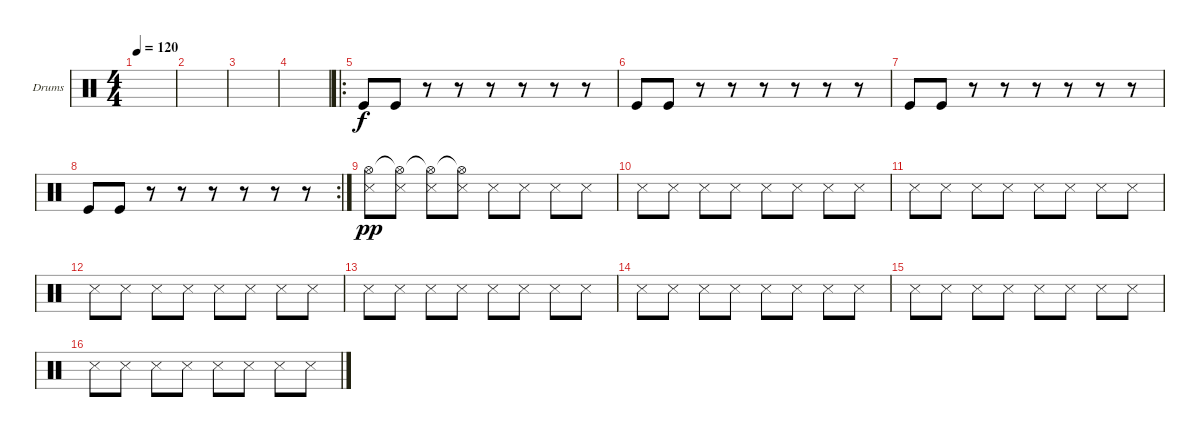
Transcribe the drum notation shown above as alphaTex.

\defaultSystemsLayout 4
\bracketExtendMode groupsimilarinstruments
\firstSystemTrackNameOrientation horizontal
\otherSystemsTrackNameOrientation horizontal
\track ("Drumkit" "Drums") {instrument percussion}
\staff {score}
\articulation defaults
\ts (4 4)
\tempo 120
\clef neutral
\scale
0.472222
\ks c
|
\scale
0.263889 |
\scale
0.263889 |
\scale
0.333333 |
\ro
\scale
0.333333 "Kick (hit)".8 "Kick (hit)".8 r.8 r.8 r.8 r.8 r.8 r.8 |
\scale
0.333333 "Kick (hit)".8 "Kick (hit)".8 r.8 r.8 r.8 r.8 r.8 r.8 |
\scale
0.333333 "Kick (hit)".8 "Kick (hit)".8 r.8 r.8 r.8 r.8 r.8 r.8 |
\rc 2
\scale
0.333333 "Kick (hit)".8 "Kick (hit)".8 r.8 r.8 r.8 r.8 r.8 r.8 |
\scale
0.333333 ("Snare (side stick) 3" "Hi-Hat (open)").8{dy pp} ("Snare (side stick) 3" "Hi-Hat (open)"{t}).8 ("Snare (side stick) 3" "Hi-Hat (open)"{t}).8 ("Snare (side stick) 3" "Hi-Hat (open)"{t}).8 "Snare (side stick) 3".8 "Snare (side stick) 3".8 "Snare (side stick) 3".8 "Snare (side stick) 3".8 |
\scale
0.333333 "Snare (side stick) 3".8 "Snare (side stick) 3".8 "Snare (side stick) 3".8 "Snare (side stick) 3".8 "Snare (side stick) 3".8 "Snare (side stick) 3".8 "Snare (side stick) 3".8 "Snare (side stick) 3".8 |
\scale
0.333333 "Snare (side stick) 3".8 "Snare (side stick) 3".8 "Snare (side stick) 3".8 "Snare (side stick) 3".8 "Snare (side stick) 3".8 "Snare (side stick) 3".8 "Snare (side stick) 3".8 "Snare (side stick) 3".8 |
\scale
0.333333 "Snare (side stick) 3".8 "Snare (side stick) 3".8 "Snare (side stick) 3".8 "Snare (side stick) 3".8 "Snare (side stick) 3".8 "Snare (side stick) 3".8 "Snare (side stick) 3".8 "Snare (side stick) 3".8 |
\scale
0.333333 "Snare (side stick) 3".8 "Snare (side stick) 3".8 "Snare (side stick) 3".8 "Snare (side stick) 3".8 "Snare (side stick) 3".8 "Snare (side stick) 3".8 "Snare (side stick) 3".8 "Snare (side stick) 3".8 |
\scale
0.333333 "Snare (side stick) 3".8 "Snare (side stick) 3".8 "Snare (side stick) 3".8 "Snare (side stick) 3".8 "Snare (side stick) 3".8 "Snare (side stick) 3".8 "Snare (side stick) 3".8 "Snare (side stick) 3".8 |
\scale
0.333333 "Snare (side stick) 3".8 "Snare (side stick) 3".8 "Snare (side stick) 3".8 "Snare (side stick) 3".8 "Snare (side stick) 3".8 "Snare (side stick) 3".8 "Snare (side stick) 3".8 "Snare (side stick) 3".8 |
\scale
0.333333 "Snare (side stick) 3".8 "Snare (side stick) 3".8 "Snare (side stick) 3".8 "Snare (side stick) 3".8 "Snare (side stick) 3".8 "Snare (side stick) 3".8 "Snare (side stick) 3".8 "Snare (side stick) 3".8
